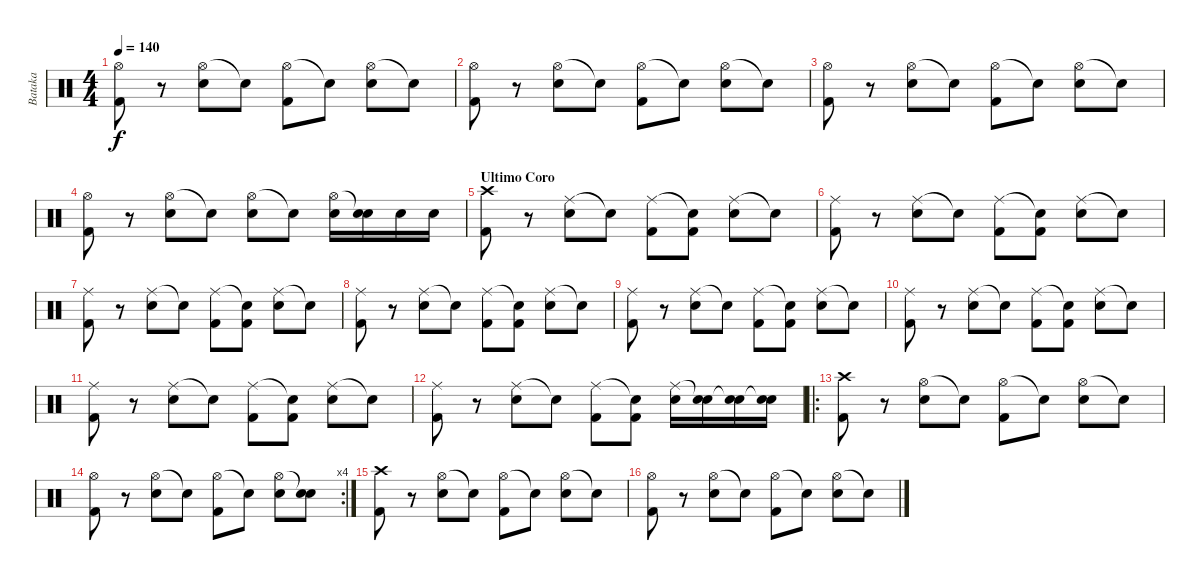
\track ("Bataka" "Bataka") {instrument percussion}
\staff {score}
\articulation defaults
\ts (4 4)
\tempo 140
\clef neutral
\ks c
("Hi-Hat (open)" "Kick (hit) 2").8{dy f} r.8 ("Hi-Hat (open)" "Snare (hit) 2").8 "Snare (hit)"{t}.8 ("Hi-Hat (open)" "Kick (hit) 2").8 "Snare (hit)"{t}.8 ("Hi-Hat (open)" "Snare (hit) 2").8 "Snare (hit)"{t}.8 |
("Hi-Hat (open)" "Kick (hit) 2").8 r.8 ("Hi-Hat (open)" "Snare (hit) 2").8 "Snare (hit)"{t}.8 ("Hi-Hat (open)" "Kick (hit) 2").8 "Snare (hit)"{t}.8 ("Hi-Hat (open)" "Snare (hit) 2").8 "Snare (hit)"{t}.8 |
("Hi-Hat (open)" "Kick (hit) 2").8 r.8 ("Hi-Hat (open)" "Snare (hit) 2").8 "Snare (hit)"{t}.8 ("Hi-Hat (open)" "Kick (hit) 2").8 "Snare (hit)"{t}.8 ("Hi-Hat (open)" "Snare (hit) 2").8 "Snare (hit)"{t}.8 |
("Hi-Hat (open)" "Kick (hit) 2").8 r.8 ("Hi-Hat (open)" "Snare (hit) 2").8 "Snare (hit)"{t}.8 ("Hi-Hat (open)" "Snare (hit) 2").8 "Snare (hit)"{t}.8 ("Hi-Hat (open)" "Snare (hit) 2").16 ("Snare (hit)"{t} "Snare (hit) 2").16 "Snare (hit) 2".16 "Snare (hit) 2".16 |
\section ("" "Ultimo Coro")
("Crash high (hit)" "Kick (hit) 2").8 r.8 ("Ride (middle)" "Snare (hit) 2").8 "Snare (hit)"{t}.8 ("Ride (middle)" "Kick (hit) 2").8 ("Snare (hit)"{t} "Kick (hit) 2").8 ("Ride (middle)" "Snare (hit) 2").8 "Snare (hit)"{t}.8 |
("Ride (middle)" "Kick (hit) 2").8 r.8 ("Ride (middle)" "Snare (hit) 2").8 "Snare (hit)"{t}.8 ("Ride (middle)" "Kick (hit) 2").8 ("Snare (hit)"{t} "Kick (hit) 2").8 ("Ride (middle)" "Snare (hit) 2").8 "Snare (hit)"{t}.8 |
("Ride (middle)" "Kick (hit) 2").8 r.8 ("Ride (middle)" "Snare (hit) 2").8 "Snare (hit)"{t}.8 ("Ride (middle)" "Kick (hit) 2").8 ("Snare (hit)"{t} "Kick (hit) 2").8 ("Ride (middle)" "Snare (hit) 2").8 "Snare (hit)"{t}.8 |
("Ride (middle)" "Kick (hit) 2").8 r.8 ("Ride (middle)" "Snare (hit) 2").8 "Snare (hit)"{t}.8 ("Ride (middle)" "Kick (hit) 2").8 ("Snare (hit)"{t} "Kick (hit) 2").8 ("Ride (middle)" "Snare (hit) 2").8 "Snare (hit)"{t}.8 |
("Ride (middle)" "Kick (hit) 2").8 r.8 ("Ride (middle)" "Snare (hit) 2").8 "Snare (hit)"{t}.8 ("Ride (middle)" "Kick (hit) 2").8 ("Snare (hit)"{t} "Kick (hit) 2").8 ("Ride (middle)" "Snare (hit) 2").8 "Snare (hit)"{t}.8 |
("Ride (middle)" "Kick (hit) 2").8 r.8 ("Ride (middle)" "Snare (hit) 2").8 "Snare (hit)"{t}.8 ("Ride (middle)" "Kick (hit) 2").8 ("Snare (hit)"{t} "Kick (hit) 2").8 ("Ride (middle)" "Snare (hit) 2").8 "Snare (hit)"{t}.8 |
("Ride (middle)" "Kick (hit) 2").8 r.8 ("Ride (middle)" "Snare (hit) 2").8 "Snare (hit)"{t}.8 ("Ride (middle)" "Kick (hit) 2").8 ("Snare (hit)"{t} "Kick (hit) 2").8 ("Ride (middle)" "Snare (hit) 2").8 "Snare (hit)"{t}.8 |
("Ride (middle)" "Kick (hit) 2").8 r.8 ("Ride (middle)" "Snare (hit) 2").8 "Snare (hit)"{t}.8 ("Ride (middle)" "Kick (hit) 2").8 ("Snare (hit)"{t} "Kick (hit) 2").8 ("Ride (middle)" "Snare (hit) 2").16 ("Snare (hit)"{t} "Snare (hit) 2").16 ("Snare (hit)"{t} "Snare (hit) 2").16 ("Snare (hit)"{t} "Snare (hit) 2").16 |
\ro
("Crash high (hit)" "Kick (hit) 2").8 r.8 ("Hi-Hat (open)" "Snare (hit) 2").8 "Snare (hit)"{t}.8 ("Hi-Hat (open)" "Kick (hit) 2").8 "Snare (hit)"{t}.8 ("Hi-Hat (open)" "Snare (hit) 2").8 "Snare (hit)"{t}.8 |
\rc 4
("Hi-Hat (open)" "Kick (hit) 2").8 r.8 ("Hi-Hat (open)" "Snare (hit) 2").8 "Snare (hit)"{t}.8 ("Hi-Hat (open)" "Kick (hit) 2").8 "Snare (hit)"{t}.8 ("Hi-Hat (open)" "Snare (hit) 2").8 ("Snare (hit)"{t} "Snare (hit) 2").8 |
("Crash high (hit)" "Kick (hit) 2").8 r.8 ("Hi-Hat (open)" "Snare (hit) 2").8 "Snare (hit)"{t}.8 ("Hi-Hat (open)" "Kick (hit) 2").8 "Snare (hit)"{t}.8 ("Hi-Hat (open)" "Snare (hit) 2").8 "Snare (hit)"{t}.8 |
("Hi-Hat (open)" "Kick (hit) 2").8 r.8 ("Hi-Hat (open)" "Snare (hit) 2").8 "Snare (hit)"{t}.8 ("Hi-Hat (open)" "Kick (hit) 2").8 "Snare (hit)"{t}.8 ("Hi-Hat (open)" "Snare (hit) 2").8 "Snare (hit)"{t}.8
